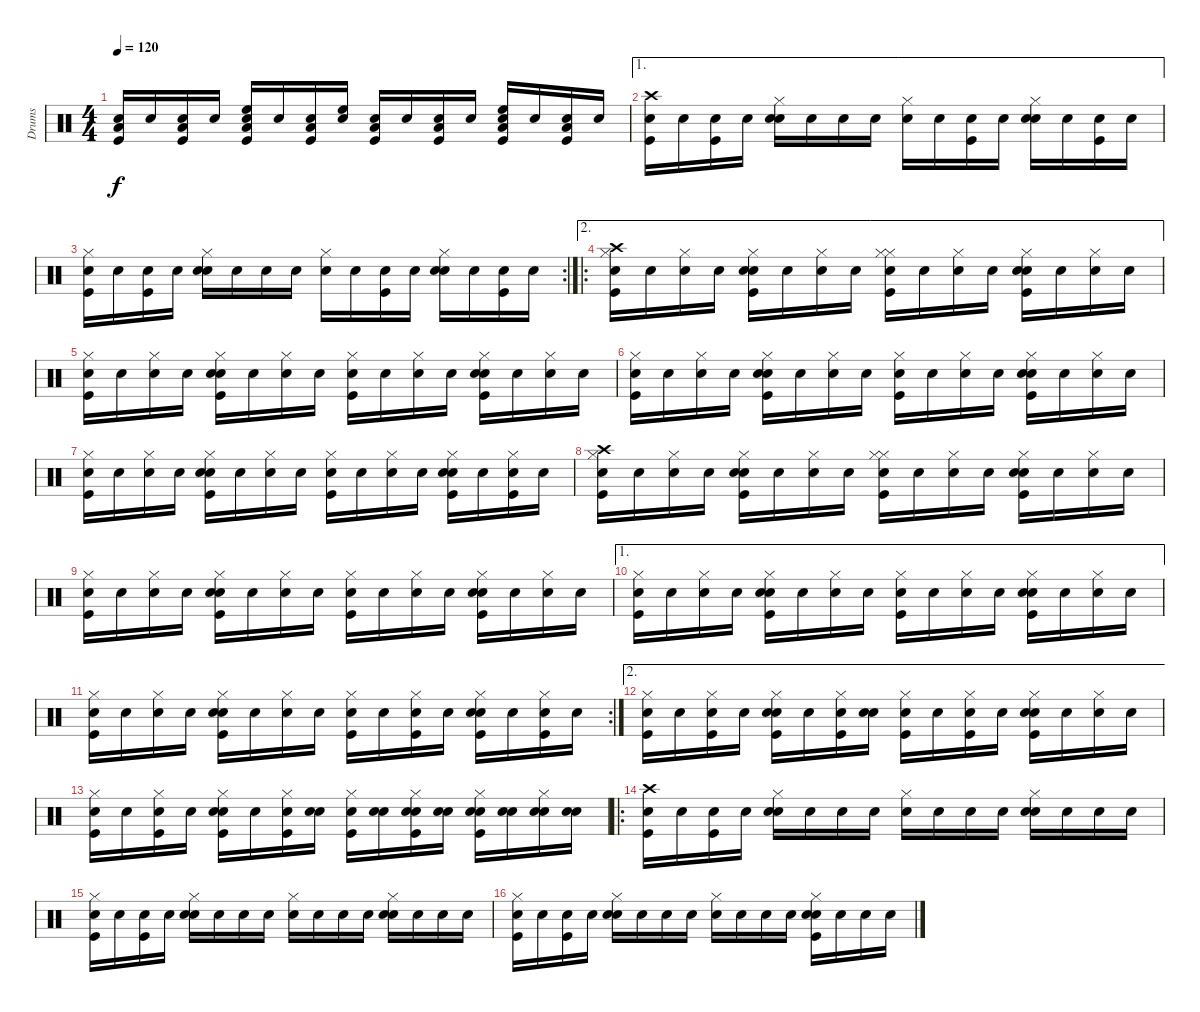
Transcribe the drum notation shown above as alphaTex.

\track ("Drums" "Drums") {instrument percussion}
\staff {score}
\articulation defaults
\ts (4 4)
\tempo 120
\clef neutral
\ks c
("Snare (hit)" "Low Floor Tom (hit)" "Kick (hit)").16{dy f} "Snare (hit)".16 ("Snare (hit)" "Low Floor Tom (hit)" "Kick (hit)").16 "Snare (hit)".16 ("Snare (hit)" "High Floor Tom (hit)" "Low Floor Tom (hit)" "Kick (hit)").16 "Snare (hit)".16 ("Snare (hit)" "Low Floor Tom (hit)" "Kick (hit)").16 ("Snare (hit)" "High Floor Tom (hit)").16 ("Snare (hit)" "Low Floor Tom (hit)" "Kick (hit)").16 "Snare (hit)".16 ("Snare (hit)" "Low Floor Tom (hit)" "Kick (hit)").16 "Snare (hit)".16 ("Snare (hit)" "High Floor Tom (hit)" "Low Floor Tom (hit)" "Kick (hit)").16 "Snare (hit)".16 ("Snare (hit)" "Low Floor Tom (hit)" "Kick (hit)").16 "Snare (hit)".16 |
\ae 1
("Snare (hit)" "Crash high (hit)" "Kick (hit)").16 "Snare (hit)".16 ("Snare (hit)" "Kick (hit)").16 "Snare (hit)".16 ("Snare (hit)" "Snare (hit) 2" "Hi-Hat (closed)").16 "Snare (hit)".16 "Snare (hit)".16 "Snare (hit)".16 ("Snare (hit)" "Hi-Hat (closed)").16 "Snare (hit)".16 ("Snare (hit)" "Kick (hit)").16 "Snare (hit)".16 ("Snare (hit)" "Snare (hit) 2" "Hi-Hat (closed)").16 "Snare (hit)".16 ("Snare (hit)" "Kick (hit)").16 "Snare (hit)".16 |
\rc 2
("Snare (hit)" "Hi-Hat (closed)" "Kick (hit)").16 "Snare (hit)".16 ("Snare (hit)" "Kick (hit)").16 "Snare (hit)".16 ("Snare (hit)" "Snare (hit) 2" "Hi-Hat (closed)").16 "Snare (hit)".16 "Snare (hit)".16 "Snare (hit)".16 ("Snare (hit)" "Hi-Hat (closed)").16 "Snare (hit)".16 ("Snare (hit)" "Kick (hit)").16 "Snare (hit)".16 ("Snare (hit)" "Snare (hit) 2" "Hi-Hat (closed)").16 "Snare (hit)".16 ("Snare (hit)" "Kick (hit)").16 "Snare (hit)".16 |
\ae 2
\ro
("Snare (hit)" "Hi-Hat (closed)" "Crash high (hit)" "Kick (hit)").16 "Snare (hit)".16 ("Snare (hit)" "Hi-Hat (closed)").16 "Snare (hit)".16 ("Snare (hit)" "Snare (hit) 2" "Hi-Hat (closed)" "Kick (hit)").16 "Snare (hit)".16 ("Snare (hit)" "Hi-Hat (closed)").16 "Snare (hit)".16 ("Snare (hit)" "Hi-Hat (closed)" "Hi-Hat (closed)" "Kick (hit)").16 "Snare (hit)".16 ("Snare (hit)" "Hi-Hat (closed)").16 "Snare (hit)".16 ("Snare (hit)" "Snare (hit) 2" "Hi-Hat (closed)" "Kick (hit)").16 "Snare (hit)".16 ("Snare (hit)" "Hi-Hat (closed)").16 "Snare (hit)".16 |
("Snare (hit)" "Hi-Hat (closed)" "Kick (hit)").16 "Snare (hit)".16 ("Snare (hit)" "Hi-Hat (closed)").16 "Snare (hit)".16 ("Snare (hit)" "Snare (hit) 2" "Hi-Hat (closed)" "Kick (hit)").16 "Snare (hit)".16 ("Snare (hit)" "Hi-Hat (closed)").16 "Snare (hit)".16 ("Snare (hit)" "Hi-Hat (closed)" "Kick (hit)").16 "Snare (hit)".16 ("Snare (hit)" "Hi-Hat (closed)").16 "Snare (hit)".16 ("Snare (hit)" "Snare (hit) 2" "Hi-Hat (closed)" "Kick (hit)").16 "Snare (hit)".16 ("Snare (hit)" "Hi-Hat (closed)").16 "Snare (hit)".16 |
("Snare (hit)" "Hi-Hat (closed)" "Kick (hit)").16 "Snare (hit)".16 ("Snare (hit)" "Hi-Hat (closed)").16 "Snare (hit)".16 ("Snare (hit)" "Snare (hit) 2" "Hi-Hat (closed)" "Kick (hit)").16 "Snare (hit)".16 ("Snare (hit)" "Hi-Hat (closed)").16 "Snare (hit)".16 ("Snare (hit)" "Hi-Hat (closed)" "Kick (hit)").16 "Snare (hit)".16 ("Snare (hit)" "Hi-Hat (closed)").16 "Snare (hit)".16 ("Snare (hit)" "Snare (hit) 2" "Hi-Hat (closed)" "Kick (hit)").16 "Snare (hit)".16 ("Snare (hit)" "Hi-Hat (closed)").16 "Snare (hit)".16 |
("Snare (hit)" "Hi-Hat (closed)" "Kick (hit)").16 "Snare (hit)".16 ("Snare (hit)" "Hi-Hat (closed)").16 "Snare (hit)".16 ("Snare (hit)" "Snare (hit) 2" "Hi-Hat (closed)" "Kick (hit)").16 "Snare (hit)".16 ("Snare (hit)" "Hi-Hat (closed)").16 "Snare (hit)".16 ("Snare (hit)" "Hi-Hat (closed)" "Kick (hit)").16 "Snare (hit)".16 ("Snare (hit)" "Hi-Hat (closed)").16 "Snare (hit)".16 ("Snare (hit)" "Snare (hit) 2" "Hi-Hat (closed)" "Kick (hit)").16 "Snare (hit)".16 ("Snare (hit)" "Hi-Hat (closed)" "Kick (hit)").16 "Snare (hit)".16 |
("Snare (hit)" "Hi-Hat (closed)" "Crash high (hit)" "Kick (hit)").16 "Snare (hit)".16 ("Snare (hit)" "Hi-Hat (closed)").16 "Snare (hit)".16 ("Snare (hit)" "Snare (hit) 2" "Hi-Hat (closed)" "Kick (hit)").16 "Snare (hit)".16 ("Snare (hit)" "Hi-Hat (closed)").16 "Snare (hit)".16 ("Snare (hit)" "Hi-Hat (closed)" "Hi-Hat (closed)" "Kick (hit)").16 "Snare (hit)".16 ("Snare (hit)" "Hi-Hat (closed)").16 "Snare (hit)".16 ("Snare (hit)" "Snare (hit) 2" "Hi-Hat (closed)" "Kick (hit)").16 "Snare (hit)".16 ("Snare (hit)" "Hi-Hat (closed)").16 "Snare (hit)".16 |
("Snare (hit)" "Hi-Hat (closed)" "Kick (hit)").16 "Snare (hit)".16 ("Snare (hit)" "Hi-Hat (closed)").16 "Snare (hit)".16 ("Snare (hit)" "Snare (hit) 2" "Hi-Hat (closed)" "Kick (hit)").16 "Snare (hit)".16 ("Snare (hit)" "Hi-Hat (closed)").16 "Snare (hit)".16 ("Snare (hit)" "Hi-Hat (closed)" "Kick (hit)").16 "Snare (hit)".16 ("Snare (hit)" "Hi-Hat (closed)").16 "Snare (hit)".16 ("Snare (hit)" "Snare (hit) 2" "Hi-Hat (closed)" "Kick (hit)").16 "Snare (hit)".16 ("Snare (hit)" "Hi-Hat (closed)").16 "Snare (hit)".16 |
\ae 1
("Snare (hit)" "Hi-Hat (closed)" "Kick (hit)").16 "Snare (hit)".16 ("Snare (hit)" "Hi-Hat (closed)").16 "Snare (hit)".16 ("Snare (hit)" "Snare (hit) 2" "Hi-Hat (closed)" "Kick (hit)").16 "Snare (hit)".16 ("Snare (hit)" "Hi-Hat (closed)").16 "Snare (hit)".16 ("Snare (hit)" "Hi-Hat (closed)" "Kick (hit)").16 "Snare (hit)".16 ("Snare (hit)" "Hi-Hat (closed)").16 "Snare (hit)".16 ("Snare (hit)" "Snare (hit) 2" "Hi-Hat (closed)" "Kick (hit)").16 "Snare (hit)".16 ("Snare (hit)" "Hi-Hat (closed)").16 "Snare (hit)".16 |
\rc 2
("Snare (hit)" "Hi-Hat (closed)" "Kick (hit)").16 "Snare (hit)".16 ("Snare (hit)" "Hi-Hat (closed)").16 "Snare (hit)".16 ("Snare (hit)" "Snare (hit) 2" "Hi-Hat (closed)" "Kick (hit)").16 "Snare (hit)".16 ("Snare (hit)" "Hi-Hat (closed)").16 "Snare (hit)".16 ("Snare (hit)" "Hi-Hat (closed)" "Kick (hit)").16 "Snare (hit)".16 ("Snare (hit)" "Hi-Hat (closed)" "Kick (hit)").16 "Snare (hit)".16 ("Snare (hit)" "Snare (hit) 2" "Hi-Hat (closed)" "Kick (hit)").16 "Snare (hit)".16 ("Snare (hit)" "Hi-Hat (closed)" "Kick (hit)").16 "Snare (hit)".16 |
\ae 2
("Snare (hit)" "Hi-Hat (closed)" "Kick (hit)").16 "Snare (hit)".16 ("Snare (hit)" "Hi-Hat (closed)" "Kick (hit)").16 "Snare (hit)".16 ("Snare (hit)" "Snare (hit) 2" "Hi-Hat (closed)" "Kick (hit)").16 "Snare (hit)".16 ("Snare (hit)" "Hi-Hat (closed)" "Kick (hit)").16 ("Snare (hit)" "Snare (hit) 2").16 ("Snare (hit)" "Hi-Hat (closed)" "Kick (hit)").16 "Snare (hit)".16 ("Snare (hit)" "Hi-Hat (closed)" "Kick (hit)").16 "Snare (hit)".16 ("Snare (hit)" "Snare (hit) 2" "Hi-Hat (closed)" "Kick (hit)").16 "Snare (hit)".16 ("Snare (hit)" "Hi-Hat (closed)").16 "Snare (hit)".16 |
("Snare (hit)" "Hi-Hat (closed)" "Kick (hit)").16 "Snare (hit)".16 ("Snare (hit)" "Hi-Hat (closed)" "Kick (hit)").16 "Snare (hit)".16 ("Snare (hit)" "Snare (hit) 2" "Hi-Hat (closed)" "Kick (hit)").16 "Snare (hit)".16 ("Snare (hit)" "Hi-Hat (closed)" "Kick (hit)").16 ("Snare (hit)" "Snare (hit) 2").16 ("Snare (hit)" "Hi-Hat (closed)" "Kick (hit)").16 ("Snare (hit)" "Snare (hit) 2").16 ("Snare (hit)" "Hi-Hat (closed)" "Snare (hit) 2" "Kick (hit)").16 ("Snare (hit)" "Snare (hit) 2").16 ("Snare (hit)" "Snare (hit) 2" "Hi-Hat (closed)" "Kick (hit)").16 ("Snare (hit)" "Snare (hit) 2").16 ("Snare (hit)" "Hi-Hat (closed)" "Snare (hit) 2").16 ("Snare (hit)" "Snare (hit) 2").16 |
\ro
("Snare (hit)" "Crash high (hit)" "Kick (hit)").16 "Snare (hit)".16 ("Snare (hit)" "Kick (hit)").16 "Snare (hit)".16 ("Snare (hit)" "Snare (hit) 2" "Hi-Hat (closed)").16 "Snare (hit)".16 "Snare (hit)".16 "Snare (hit)".16 ("Snare (hit)" "Hi-Hat (closed)").16 "Snare (hit)".16 "Snare (hit)".16 "Snare (hit)".16 ("Snare (hit)" "Snare (hit) 2" "Hi-Hat (closed)").16 "Snare (hit)".16 "Snare (hit)".16 "Snare (hit)".16 |
("Snare (hit)" "Hi-Hat (closed)" "Kick (hit)").16 "Snare (hit)".16 ("Snare (hit)" "Kick (hit)").16 "Snare (hit)".16 ("Snare (hit)" "Snare (hit) 2" "Hi-Hat (closed)").16 "Snare (hit)".16 "Snare (hit)".16 "Snare (hit)".16 ("Snare (hit)" "Hi-Hat (closed)").16 "Snare (hit)".16 "Snare (hit)".16 "Snare (hit)".16 ("Snare (hit)" "Snare (hit) 2" "Hi-Hat (closed)").16 "Snare (hit)".16 "Snare (hit)".16 "Snare (hit)".16 |
("Snare (hit)" "Hi-Hat (closed)" "Kick (hit)").16 "Snare (hit)".16 ("Snare (hit)" "Kick (hit)").16 "Snare (hit)".16 ("Snare (hit)" "Snare (hit) 2" "Hi-Hat (closed)").16 "Snare (hit)".16 "Snare (hit)".16 "Snare (hit)".16 ("Snare (hit)" "Hi-Hat (closed)").16 "Snare (hit)".16 "Snare (hit)".16 "Snare (hit)".16 ("Snare (hit)" "Snare (hit) 2" "Hi-Hat (closed)" "Kick (hit)").16 "Snare (hit)".16 "Snare (hit)".16 "Snare (hit)".16
